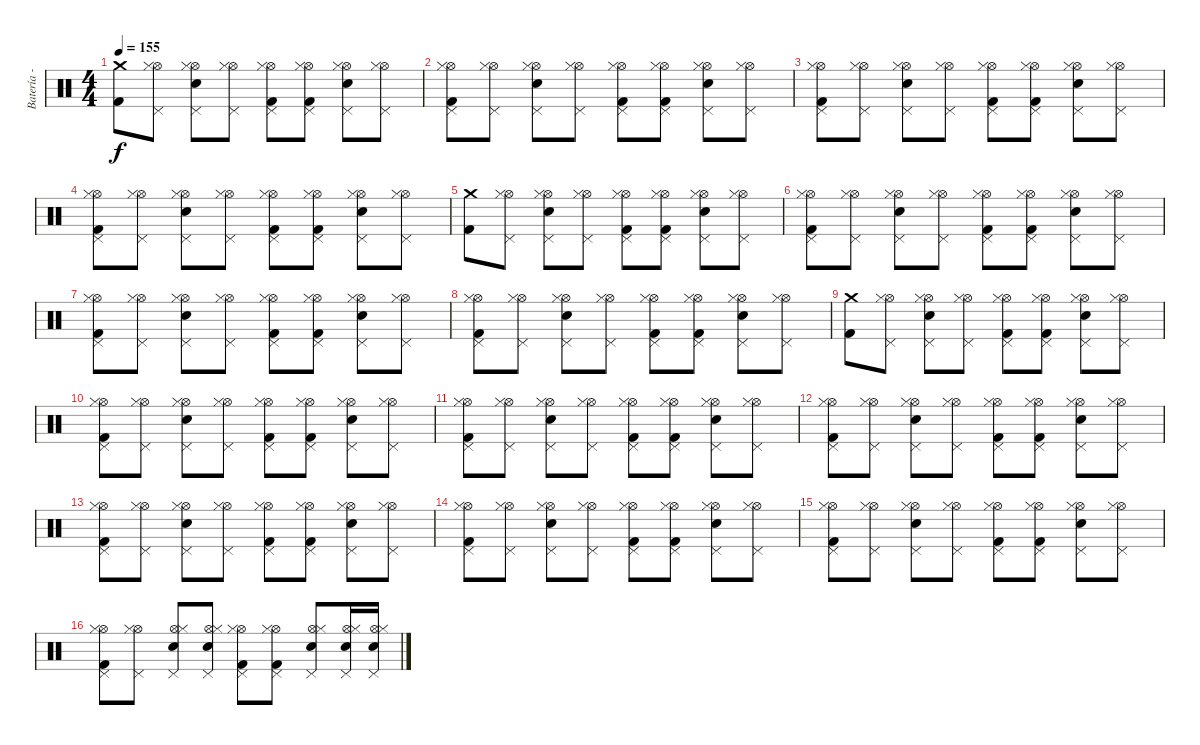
\track ("Batería - Edu" "Batería - ") {instrument percussion}
\staff {score}
\articulation defaults
\ts (4 4)
\tempo 155
\clef neutral
\ks c
("Crash medium (hit)" "Kick (hit) 2").8{dy f} ("Pedal Hi-Hat (hit)" "Hi-Hat (open)" "Hi-Hat (closed)").8 ("Pedal Hi-Hat (hit)" "Hi-Hat (open)" "Hi-Hat (closed)" "Electric Snare (hit)").8 ("Pedal Hi-Hat (hit)" "Hi-Hat (open)" "Hi-Hat (closed)").8 ("Pedal Hi-Hat (hit)" "Hi-Hat (open)" "Hi-Hat (closed)" "Kick (hit) 2").8 ("Pedal Hi-Hat (hit)" "Hi-Hat (open)" "Hi-Hat (closed)" "Kick (hit) 2").8 ("Pedal Hi-Hat (hit)" "Hi-Hat (open)" "Hi-Hat (closed)" "Electric Snare (hit)").8 ("Pedal Hi-Hat (hit)" "Hi-Hat (open)" "Hi-Hat (closed)").8 |
("Pedal Hi-Hat (hit)" "Hi-Hat (open)" "Hi-Hat (closed)" "Kick (hit) 2").8 ("Pedal Hi-Hat (hit)" "Hi-Hat (open)" "Hi-Hat (closed)").8 ("Pedal Hi-Hat (hit)" "Hi-Hat (open)" "Hi-Hat (closed)" "Electric Snare (hit)").8 ("Pedal Hi-Hat (hit)" "Hi-Hat (open)" "Hi-Hat (closed)").8 ("Pedal Hi-Hat (hit)" "Hi-Hat (open)" "Hi-Hat (closed)" "Kick (hit) 2").8 ("Pedal Hi-Hat (hit)" "Hi-Hat (open)" "Hi-Hat (closed)" "Kick (hit) 2").8 ("Pedal Hi-Hat (hit)" "Hi-Hat (open)" "Hi-Hat (closed)" "Electric Snare (hit)").8 ("Pedal Hi-Hat (hit)" "Hi-Hat (open)" "Hi-Hat (closed)").8 |
("Pedal Hi-Hat (hit)" "Hi-Hat (open)" "Hi-Hat (closed)" "Kick (hit) 2").8 ("Pedal Hi-Hat (hit)" "Hi-Hat (open)" "Hi-Hat (closed)").8 ("Pedal Hi-Hat (hit)" "Hi-Hat (open)" "Hi-Hat (closed)" "Electric Snare (hit)").8 ("Pedal Hi-Hat (hit)" "Hi-Hat (open)" "Hi-Hat (closed)").8 ("Pedal Hi-Hat (hit)" "Hi-Hat (open)" "Hi-Hat (closed)" "Kick (hit) 2").8 ("Pedal Hi-Hat (hit)" "Hi-Hat (open)" "Hi-Hat (closed)" "Kick (hit) 2").8 ("Pedal Hi-Hat (hit)" "Hi-Hat (open)" "Hi-Hat (closed)" "Electric Snare (hit)").8 ("Pedal Hi-Hat (hit)" "Hi-Hat (open)" "Hi-Hat (closed)").8 |
("Pedal Hi-Hat (hit)" "Hi-Hat (open)" "Hi-Hat (closed)" "Kick (hit) 2").8 ("Pedal Hi-Hat (hit)" "Hi-Hat (open)" "Hi-Hat (closed)").8 ("Pedal Hi-Hat (hit)" "Hi-Hat (open)" "Hi-Hat (closed)" "Electric Snare (hit)").8 ("Pedal Hi-Hat (hit)" "Hi-Hat (open)" "Hi-Hat (closed)").8 ("Pedal Hi-Hat (hit)" "Hi-Hat (open)" "Hi-Hat (closed)" "Kick (hit) 2").8 ("Pedal Hi-Hat (hit)" "Hi-Hat (open)" "Hi-Hat (closed)" "Kick (hit) 2").8 ("Pedal Hi-Hat (hit)" "Hi-Hat (open)" "Hi-Hat (closed)" "Electric Snare (hit)").8 ("Pedal Hi-Hat (hit)" "Hi-Hat (open)" "Hi-Hat (closed)").8 |
("Crash medium (hit)" "Kick (hit) 2").8 ("Pedal Hi-Hat (hit)" "Hi-Hat (open)" "Hi-Hat (closed)").8 ("Pedal Hi-Hat (hit)" "Hi-Hat (open)" "Hi-Hat (closed)" "Electric Snare (hit)").8 ("Pedal Hi-Hat (hit)" "Hi-Hat (open)" "Hi-Hat (closed)").8 ("Pedal Hi-Hat (hit)" "Hi-Hat (open)" "Hi-Hat (closed)" "Kick (hit) 2").8 ("Pedal Hi-Hat (hit)" "Hi-Hat (open)" "Hi-Hat (closed)" "Kick (hit) 2").8 ("Pedal Hi-Hat (hit)" "Hi-Hat (open)" "Hi-Hat (closed)" "Electric Snare (hit)").8 ("Pedal Hi-Hat (hit)" "Hi-Hat (open)" "Hi-Hat (closed)").8 |
("Pedal Hi-Hat (hit)" "Hi-Hat (open)" "Hi-Hat (closed)" "Kick (hit) 2").8 ("Pedal Hi-Hat (hit)" "Hi-Hat (open)" "Hi-Hat (closed)").8 ("Pedal Hi-Hat (hit)" "Hi-Hat (open)" "Hi-Hat (closed)" "Electric Snare (hit)").8 ("Pedal Hi-Hat (hit)" "Hi-Hat (open)" "Hi-Hat (closed)").8 ("Pedal Hi-Hat (hit)" "Hi-Hat (open)" "Hi-Hat (closed)" "Kick (hit) 2").8 ("Pedal Hi-Hat (hit)" "Hi-Hat (open)" "Hi-Hat (closed)" "Kick (hit) 2").8 ("Pedal Hi-Hat (hit)" "Hi-Hat (open)" "Hi-Hat (closed)" "Electric Snare (hit)").8 ("Pedal Hi-Hat (hit)" "Hi-Hat (open)" "Hi-Hat (closed)").8 |
("Pedal Hi-Hat (hit)" "Hi-Hat (open)" "Hi-Hat (closed)" "Kick (hit) 2").8 ("Pedal Hi-Hat (hit)" "Hi-Hat (open)" "Hi-Hat (closed)").8 ("Pedal Hi-Hat (hit)" "Hi-Hat (open)" "Hi-Hat (closed)" "Electric Snare (hit)").8 ("Pedal Hi-Hat (hit)" "Hi-Hat (open)" "Hi-Hat (closed)").8 ("Pedal Hi-Hat (hit)" "Hi-Hat (open)" "Hi-Hat (closed)" "Kick (hit) 2").8 ("Pedal Hi-Hat (hit)" "Hi-Hat (open)" "Hi-Hat (closed)" "Kick (hit) 2").8 ("Pedal Hi-Hat (hit)" "Hi-Hat (open)" "Hi-Hat (closed)" "Electric Snare (hit)").8 ("Pedal Hi-Hat (hit)" "Hi-Hat (open)" "Hi-Hat (closed)").8 |
("Pedal Hi-Hat (hit)" "Hi-Hat (open)" "Hi-Hat (closed)" "Kick (hit) 2").8 ("Pedal Hi-Hat (hit)" "Hi-Hat (open)" "Hi-Hat (closed)").8 ("Pedal Hi-Hat (hit)" "Hi-Hat (open)" "Hi-Hat (closed)" "Electric Snare (hit)").8 ("Pedal Hi-Hat (hit)" "Hi-Hat (open)" "Hi-Hat (closed)").8 ("Pedal Hi-Hat (hit)" "Hi-Hat (open)" "Hi-Hat (closed)" "Kick (hit) 2").8 ("Pedal Hi-Hat (hit)" "Hi-Hat (open)" "Hi-Hat (closed)" "Kick (hit) 2").8 ("Pedal Hi-Hat (hit)" "Hi-Hat (open)" "Hi-Hat (closed)" "Electric Snare (hit)").8 ("Pedal Hi-Hat (hit)" "Hi-Hat (open)" "Hi-Hat (closed)").8 |
("Crash medium (hit)" "Kick (hit) 2").8 ("Pedal Hi-Hat (hit)" "Hi-Hat (open)" "Hi-Hat (closed)").8 ("Pedal Hi-Hat (hit)" "Hi-Hat (open)" "Hi-Hat (closed)" "Electric Snare (hit)").8 ("Pedal Hi-Hat (hit)" "Hi-Hat (open)" "Hi-Hat (closed)").8 ("Pedal Hi-Hat (hit)" "Hi-Hat (open)" "Hi-Hat (closed)" "Kick (hit) 2").8 ("Pedal Hi-Hat (hit)" "Hi-Hat (open)" "Hi-Hat (closed)" "Kick (hit) 2").8 ("Pedal Hi-Hat (hit)" "Hi-Hat (open)" "Hi-Hat (closed)" "Electric Snare (hit)").8 ("Pedal Hi-Hat (hit)" "Hi-Hat (open)" "Hi-Hat (closed)").8 |
("Pedal Hi-Hat (hit)" "Hi-Hat (open)" "Hi-Hat (closed)" "Kick (hit) 2").8 ("Pedal Hi-Hat (hit)" "Hi-Hat (open)" "Hi-Hat (closed)").8 ("Pedal Hi-Hat (hit)" "Hi-Hat (open)" "Hi-Hat (closed)" "Electric Snare (hit)").8 ("Pedal Hi-Hat (hit)" "Hi-Hat (open)" "Hi-Hat (closed)").8 ("Pedal Hi-Hat (hit)" "Hi-Hat (open)" "Hi-Hat (closed)" "Kick (hit) 2").8 ("Pedal Hi-Hat (hit)" "Hi-Hat (open)" "Hi-Hat (closed)" "Kick (hit) 2").8 ("Pedal Hi-Hat (hit)" "Hi-Hat (open)" "Hi-Hat (closed)" "Electric Snare (hit)").8 ("Pedal Hi-Hat (hit)" "Hi-Hat (open)" "Hi-Hat (closed)").8 |
("Pedal Hi-Hat (hit)" "Hi-Hat (open)" "Hi-Hat (closed)" "Kick (hit) 2").8 ("Pedal Hi-Hat (hit)" "Hi-Hat (open)" "Hi-Hat (closed)").8 ("Pedal Hi-Hat (hit)" "Hi-Hat (open)" "Hi-Hat (closed)" "Electric Snare (hit)").8 ("Pedal Hi-Hat (hit)" "Hi-Hat (open)" "Hi-Hat (closed)").8 ("Pedal Hi-Hat (hit)" "Hi-Hat (open)" "Hi-Hat (closed)" "Kick (hit) 2").8 ("Pedal Hi-Hat (hit)" "Hi-Hat (open)" "Hi-Hat (closed)" "Kick (hit) 2").8 ("Pedal Hi-Hat (hit)" "Hi-Hat (open)" "Hi-Hat (closed)" "Electric Snare (hit)").8 ("Pedal Hi-Hat (hit)" "Hi-Hat (open)" "Hi-Hat (closed)").8 |
("Pedal Hi-Hat (hit)" "Hi-Hat (open)" "Hi-Hat (closed)" "Kick (hit) 2").8 ("Pedal Hi-Hat (hit)" "Hi-Hat (open)" "Hi-Hat (closed)").8 ("Pedal Hi-Hat (hit)" "Hi-Hat (open)" "Hi-Hat (closed)" "Electric Snare (hit)").8 ("Pedal Hi-Hat (hit)" "Hi-Hat (open)" "Hi-Hat (closed)").8 ("Pedal Hi-Hat (hit)" "Hi-Hat (open)" "Hi-Hat (closed)" "Kick (hit) 2").8 ("Pedal Hi-Hat (hit)" "Hi-Hat (open)" "Hi-Hat (closed)" "Kick (hit) 2").8 ("Pedal Hi-Hat (hit)" "Hi-Hat (open)" "Hi-Hat (closed)" "Electric Snare (hit)").8 ("Pedal Hi-Hat (hit)" "Hi-Hat (open)" "Hi-Hat (closed)").8 |
("Pedal Hi-Hat (hit)" "Hi-Hat (open)" "Hi-Hat (closed)" "Kick (hit) 2").8 ("Pedal Hi-Hat (hit)" "Hi-Hat (open)" "Hi-Hat (closed)").8 ("Pedal Hi-Hat (hit)" "Hi-Hat (open)" "Hi-Hat (closed)" "Electric Snare (hit)").8 ("Pedal Hi-Hat (hit)" "Hi-Hat (open)" "Hi-Hat (closed)").8 ("Pedal Hi-Hat (hit)" "Hi-Hat (open)" "Hi-Hat (closed)" "Kick (hit) 2").8 ("Pedal Hi-Hat (hit)" "Hi-Hat (open)" "Hi-Hat (closed)" "Kick (hit) 2").8 ("Pedal Hi-Hat (hit)" "Hi-Hat (open)" "Hi-Hat (closed)" "Electric Snare (hit)").8 ("Pedal Hi-Hat (hit)" "Hi-Hat (open)" "Hi-Hat (closed)").8 |
("Pedal Hi-Hat (hit)" "Hi-Hat (open)" "Hi-Hat (closed)" "Kick (hit) 2").8 ("Pedal Hi-Hat (hit)" "Hi-Hat (open)" "Hi-Hat (closed)").8 ("Pedal Hi-Hat (hit)" "Hi-Hat (open)" "Hi-Hat (closed)" "Electric Snare (hit)").8 ("Pedal Hi-Hat (hit)" "Hi-Hat (open)" "Hi-Hat (closed)").8 ("Pedal Hi-Hat (hit)" "Hi-Hat (open)" "Hi-Hat (closed)" "Kick (hit) 2").8 ("Pedal Hi-Hat (hit)" "Hi-Hat (open)" "Hi-Hat (closed)" "Kick (hit) 2").8 ("Pedal Hi-Hat (hit)" "Hi-Hat (open)" "Hi-Hat (closed)" "Electric Snare (hit)").8 ("Pedal Hi-Hat (hit)" "Hi-Hat (open)" "Hi-Hat (closed)").8 |
("Pedal Hi-Hat (hit)" "Hi-Hat (open)" "Hi-Hat (closed)" "Kick (hit) 2").8 ("Pedal Hi-Hat (hit)" "Hi-Hat (open)" "Hi-Hat (closed)").8 ("Pedal Hi-Hat (hit)" "Hi-Hat (open)" "Hi-Hat (closed)" "Electric Snare (hit)").8 ("Pedal Hi-Hat (hit)" "Hi-Hat (open)" "Hi-Hat (closed)").8 ("Pedal Hi-Hat (hit)" "Hi-Hat (open)" "Hi-Hat (closed)" "Kick (hit) 2").8 ("Pedal Hi-Hat (hit)" "Hi-Hat (open)" "Hi-Hat (closed)" "Kick (hit) 2").8 ("Pedal Hi-Hat (hit)" "Hi-Hat (open)" "Hi-Hat (closed)" "Electric Snare (hit)").8 ("Pedal Hi-Hat (hit)" "Hi-Hat (open)" "Hi-Hat (closed)").8 |
("Hi-Hat (open)" "Pedal Hi-Hat (hit)" "Hi-Hat (closed)" "Kick (hit) 2").8 ("Hi-Hat (open)" "Pedal Hi-Hat (hit)" "Hi-Hat (closed)").8 ("Hi-Hat (open)" "Pedal Hi-Hat (hit)" "Hi-Hat (closed)" "Electric Snare (hit)").8 ("Hi-Hat (open)" "Pedal Hi-Hat (hit)" "Hi-Hat (closed)" "Electric Snare (hit)").8 ("Hi-Hat (open)" "Pedal Hi-Hat (hit)" "Hi-Hat (closed)" "Kick (hit) 2").8 ("Hi-Hat (open)" "Pedal Hi-Hat (hit)" "Hi-Hat (closed)" "Kick (hit) 2").8 ("Hi-Hat (open)" "Pedal Hi-Hat (hit)" "Hi-Hat (closed)" "Electric Snare (hit)").8 ("Hi-Hat (open)" "Pedal Hi-Hat (hit)" "Hi-Hat (closed)" "Snare (hit) 2").16 ("Hi-Hat (open)" "Pedal Hi-Hat (hit)" "Hi-Hat (closed)" "Electric Snare (hit)").16
